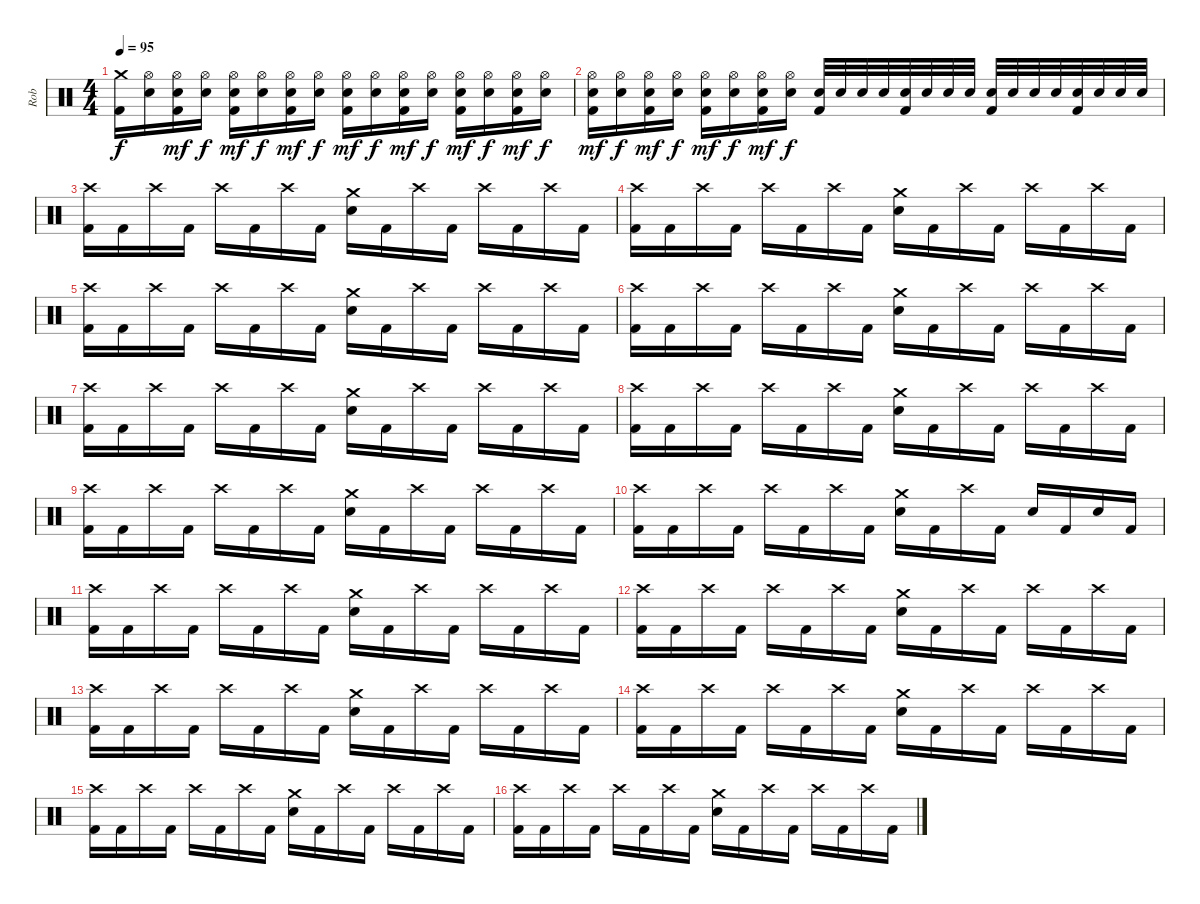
\track ("Rob" "Rob") {instrument percussion}
\staff {score}
\articulation defaults
\ts (4 4)
\tempo 95
\clef neutral
\ks c
("Crash medium (hit)" "Kick (hit) 2").16{dy f} ("Hi-Hat (open)" "Electric Snare (hit)").16 ("Hi-Hat (open)" "Electric Snare (hit)" "Kick (hit) 2").16{dy mf} ("Hi-Hat (open)" "Electric Snare (hit)").16{dy f} ("Hi-Hat (open)" "Electric Snare (hit)" "Kick (hit) 2").16{dy mf} ("Hi-Hat (open)" "Electric Snare (hit)").16{dy f} ("Hi-Hat (open)" "Electric Snare (hit)" "Kick (hit) 2").16{dy mf} ("Hi-Hat (open)" "Electric Snare (hit)").16{dy f} ("Hi-Hat (open)" "Electric Snare (hit)" "Kick (hit) 2").16{dy mf} ("Hi-Hat (open)" "Electric Snare (hit)").16{dy f} ("Hi-Hat (open)" "Electric Snare (hit)" "Kick (hit) 2").16{dy mf} ("Hi-Hat (open)" "Electric Snare (hit)").16{dy f} ("Hi-Hat (open)" "Electric Snare (hit)" "Kick (hit) 2").16{dy mf} ("Hi-Hat (open)" "Electric Snare (hit)").16{dy f} ("Hi-Hat (open)" "Electric Snare (hit)" "Kick (hit) 2").16{dy mf} ("Hi-Hat (open)" "Electric Snare (hit)").16{dy f} |
("Hi-Hat (open)" "Electric Snare (hit)" "Kick (hit) 2").16{dy mf} ("Hi-Hat (open)" "Electric Snare (hit)").16{dy f} ("Hi-Hat (open)" "Electric Snare (hit)" "Kick (hit) 2").16{dy mf} ("Hi-Hat (open)" "Electric Snare (hit)").16{dy f} ("Hi-Hat (open)" "Electric Snare (hit)" "Kick (hit) 2").16{dy mf} ("Hi-Hat (open)" "Electric Snare (hit)").16{dy f} ("Hi-Hat (open)" "Electric Snare (hit)" "Kick (hit) 2").16{dy mf} ("Hi-Hat (open)" "Electric Snare (hit)").16{dy f} ("Electric Snare (hit)" "Kick (hit) 2").32 "Electric Snare (hit)".32 "Electric Snare (hit)".32 "Electric Snare (hit)".32 ("Electric Snare (hit)" "Kick (hit) 2").32 "Electric Snare (hit)".32 "Electric Snare (hit)".32 "Electric Snare (hit)".32 ("Electric Snare (hit)" "Kick (hit) 2").32 "Electric Snare (hit)".32 "Electric Snare (hit)".32 "Electric Snare (hit)".32 ("Electric Snare (hit)" "Kick (hit) 2").32 "Electric Snare (hit)".32 "Electric Snare (hit)".32 "Electric Snare (hit)".32 |
("Crash high (hit)" "Kick (hit) 2").16 "Kick (hit) 2".16 "Crash high (hit)".16 "Kick (hit) 2".16 "Crash high (hit)".16 "Kick (hit) 2".16 "Crash high (hit)".16 "Kick (hit) 2".16 ("Crash medium (hit)" "Electric Snare (hit)").16 "Kick (hit) 2".16 "Crash high (hit)".16 "Kick (hit) 2".16 "Crash high (hit)".16 "Kick (hit) 2".16 "Crash high (hit)".16 "Kick (hit) 2".16 |
("Crash high (hit)" "Kick (hit) 2").16 "Kick (hit) 2".16 "Crash high (hit)".16 "Kick (hit) 2".16 "Crash high (hit)".16 "Kick (hit) 2".16 "Crash high (hit)".16 "Kick (hit) 2".16 ("Crash medium (hit)" "Electric Snare (hit)").16 "Kick (hit) 2".16 "Crash high (hit)".16 "Kick (hit) 2".16 "Crash high (hit)".16 "Kick (hit) 2".16 "Crash high (hit)".16 "Kick (hit) 2".16 |
("Crash high (hit)" "Kick (hit) 2").16 "Kick (hit) 2".16 "Crash high (hit)".16 "Kick (hit) 2".16 "Crash high (hit)".16 "Kick (hit) 2".16 "Crash high (hit)".16 "Kick (hit) 2".16 ("Crash medium (hit)" "Electric Snare (hit)").16 "Kick (hit) 2".16 "Crash high (hit)".16 "Kick (hit) 2".16 "Crash high (hit)".16 "Kick (hit) 2".16 "Crash high (hit)".16 "Kick (hit) 2".16 |
("Crash high (hit)" "Kick (hit) 2").16 "Kick (hit) 2".16 "Crash high (hit)".16 "Kick (hit) 2".16 "Crash high (hit)".16 "Kick (hit) 2".16 "Crash high (hit)".16 "Kick (hit) 2".16 ("Crash medium (hit)" "Electric Snare (hit)").16 "Kick (hit) 2".16 "Crash high (hit)".16 "Kick (hit) 2".16 "Crash high (hit)".16 "Kick (hit) 2".16 "Crash high (hit)".16 "Kick (hit) 2".16 |
("Crash high (hit)" "Kick (hit) 2").16 "Kick (hit) 2".16 "Crash high (hit)".16 "Kick (hit) 2".16 "Crash high (hit)".16 "Kick (hit) 2".16 "Crash high (hit)".16 "Kick (hit) 2".16 ("Crash medium (hit)" "Electric Snare (hit)").16 "Kick (hit) 2".16 "Crash high (hit)".16 "Kick (hit) 2".16 "Crash high (hit)".16 "Kick (hit) 2".16 "Crash high (hit)".16 "Kick (hit) 2".16 |
("Crash high (hit)" "Kick (hit) 2").16 "Kick (hit) 2".16 "Crash high (hit)".16 "Kick (hit) 2".16 "Crash high (hit)".16 "Kick (hit) 2".16 "Crash high (hit)".16 "Kick (hit) 2".16 ("Crash medium (hit)" "Electric Snare (hit)").16 "Kick (hit) 2".16 "Crash high (hit)".16 "Kick (hit) 2".16 "Crash high (hit)".16 "Kick (hit) 2".16 "Crash high (hit)".16 "Kick (hit) 2".16 |
("Crash high (hit)" "Kick (hit) 2").16 "Kick (hit) 2".16 "Crash high (hit)".16 "Kick (hit) 2".16 "Crash high (hit)".16 "Kick (hit) 2".16 "Crash high (hit)".16 "Kick (hit) 2".16 ("Crash medium (hit)" "Electric Snare (hit)").16 "Kick (hit) 2".16 "Crash high (hit)".16 "Kick (hit) 2".16 "Crash high (hit)".16 "Kick (hit) 2".16 "Crash high (hit)".16 "Kick (hit) 2".16 |
("Crash high (hit)" "Kick (hit) 2").16 "Kick (hit) 2".16 "Crash high (hit)".16 "Kick (hit) 2".16 "Crash high (hit)".16 "Kick (hit) 2".16 "Crash high (hit)".16 "Kick (hit) 2".16 ("Crash medium (hit)" "Electric Snare (hit)").16 "Kick (hit) 2".16 "Crash high (hit)".16 "Kick (hit) 2".16 "Electric Snare (hit)".16 "Kick (hit) 2".16 "Electric Snare (hit)".16 "Kick (hit) 2".16 |
("Crash high (hit)" "Kick (hit) 2").16 "Kick (hit) 2".16 "Crash high (hit)".16 "Kick (hit) 2".16 "Crash high (hit)".16 "Kick (hit) 2".16 "Crash high (hit)".16 "Kick (hit) 2".16 ("Crash medium (hit)" "Electric Snare (hit)").16 "Kick (hit) 2".16 "Crash high (hit)".16 "Kick (hit) 2".16 "Crash high (hit)".16 "Kick (hit) 2".16 "Crash high (hit)".16 "Kick (hit) 2".16 |
("Crash high (hit)" "Kick (hit) 2").16 "Kick (hit) 2".16 "Crash high (hit)".16 "Kick (hit) 2".16 "Crash high (hit)".16 "Kick (hit) 2".16 "Crash high (hit)".16 "Kick (hit) 2".16 ("Crash medium (hit)" "Electric Snare (hit)").16 "Kick (hit) 2".16 "Crash high (hit)".16 "Kick (hit) 2".16 "Crash high (hit)".16 "Kick (hit) 2".16 "Crash high (hit)".16 "Kick (hit) 2".16 |
("Crash high (hit)" "Kick (hit) 2").16 "Kick (hit) 2".16 "Crash high (hit)".16 "Kick (hit) 2".16 "Crash high (hit)".16 "Kick (hit) 2".16 "Crash high (hit)".16 "Kick (hit) 2".16 ("Crash medium (hit)" "Electric Snare (hit)").16 "Kick (hit) 2".16 "Crash high (hit)".16 "Kick (hit) 2".16 "Crash high (hit)".16 "Kick (hit) 2".16 "Crash high (hit)".16 "Kick (hit) 2".16 |
("Crash high (hit)" "Kick (hit) 2").16 "Kick (hit) 2".16 "Crash high (hit)".16 "Kick (hit) 2".16 "Crash high (hit)".16 "Kick (hit) 2".16 "Crash high (hit)".16 "Kick (hit) 2".16 ("Crash medium (hit)" "Electric Snare (hit)").16 "Kick (hit) 2".16 "Crash high (hit)".16 "Kick (hit) 2".16 "Crash high (hit)".16 "Kick (hit) 2".16 "Crash high (hit)".16 "Kick (hit) 2".16 |
("Crash high (hit)" "Kick (hit) 2").16 "Kick (hit) 2".16 "Crash high (hit)".16 "Kick (hit) 2".16 "Crash high (hit)".16 "Kick (hit) 2".16 "Crash high (hit)".16 "Kick (hit) 2".16 ("Crash medium (hit)" "Electric Snare (hit)").16 "Kick (hit) 2".16 "Crash high (hit)".16 "Kick (hit) 2".16 "Crash high (hit)".16 "Kick (hit) 2".16 "Crash high (hit)".16 "Kick (hit) 2".16 |
("Crash high (hit)" "Kick (hit) 2").16 "Kick (hit) 2".16 "Crash high (hit)".16 "Kick (hit) 2".16 "Crash high (hit)".16 "Kick (hit) 2".16 "Crash high (hit)".16 "Kick (hit) 2".16 ("Crash medium (hit)" "Electric Snare (hit)").16 "Kick (hit) 2".16 "Crash high (hit)".16 "Kick (hit) 2".16 "Crash high (hit)".16 "Kick (hit) 2".16 "Crash high (hit)".16 "Kick (hit) 2".16
